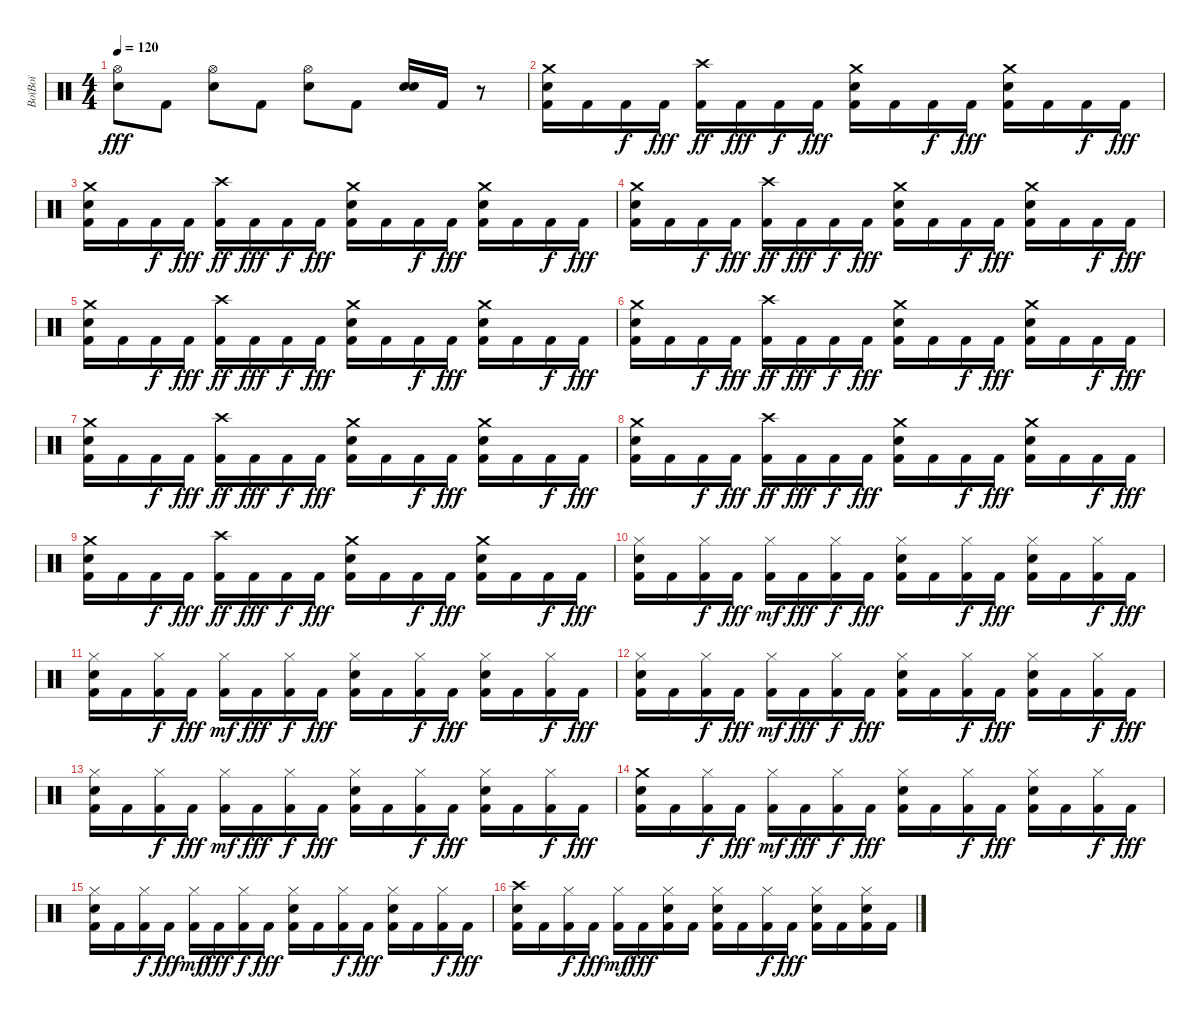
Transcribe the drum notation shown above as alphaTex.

\track ("BoïBoï" "BoïBoï") {instrument percussion}
\staff {score}
\articulation defaults
\ts (4 4)
\tempo 120
\clef neutral
\ks c
("Hi-Hat (open)" "Electric Snare (hit)").8{dy fff} "Kick (hit) 2".8 ("Hi-Hat (open)" "Electric Snare (hit)").8 "Kick (hit) 2".8 ("Hi-Hat (open)" "Electric Snare (hit)").8 "Kick (hit) 2".8 ("Electric Snare (hit)" "Snare (hit) 2").16 "Kick (hit) 2".16 r.8 |
("Crash medium (hit)" "Electric Snare (hit)" "Kick (hit) 2").16 "Kick (hit) 2".16 "Kick (hit) 2".16{dy f} "Kick (hit) 2".16{dy fff} ("Crash high (hit)" "Kick (hit) 2").16{dy ff} "Kick (hit) 2".16{dy fff} "Kick (hit) 2".16{dy f} "Kick (hit) 2".16{dy fff} ("Crash medium (hit)" "Electric Snare (hit)" "Kick (hit) 2").16 "Kick (hit) 2".16 "Kick (hit) 2".16{dy f} "Kick (hit) 2".16{dy fff} ("Crash medium (hit)" "Electric Snare (hit)" "Kick (hit) 2").16 "Kick (hit) 2".16 "Kick (hit) 2".16{dy f} "Kick (hit) 2".16{dy fff} |
("Crash medium (hit)" "Electric Snare (hit)" "Kick (hit) 2").16 "Kick (hit) 2".16 "Kick (hit) 2".16{dy f} "Kick (hit) 2".16{dy fff} ("Crash high (hit)" "Kick (hit) 2").16{dy ff} "Kick (hit) 2".16{dy fff} "Kick (hit) 2".16{dy f} "Kick (hit) 2".16{dy fff} ("Crash medium (hit)" "Electric Snare (hit)" "Kick (hit) 2").16 "Kick (hit) 2".16 "Kick (hit) 2".16{dy f} "Kick (hit) 2".16{dy fff} ("Crash medium (hit)" "Electric Snare (hit)" "Kick (hit) 2").16 "Kick (hit) 2".16 "Kick (hit) 2".16{dy f} "Kick (hit) 2".16{dy fff} |
("Crash medium (hit)" "Electric Snare (hit)" "Kick (hit) 2").16 "Kick (hit) 2".16 "Kick (hit) 2".16{dy f} "Kick (hit) 2".16{dy fff} ("Crash high (hit)" "Kick (hit) 2").16{dy ff} "Kick (hit) 2".16{dy fff} "Kick (hit) 2".16{dy f} "Kick (hit) 2".16{dy fff} ("Crash medium (hit)" "Electric Snare (hit)" "Kick (hit) 2").16 "Kick (hit) 2".16 "Kick (hit) 2".16{dy f} "Kick (hit) 2".16{dy fff} ("Crash medium (hit)" "Electric Snare (hit)" "Kick (hit) 2").16 "Kick (hit) 2".16 "Kick (hit) 2".16{dy f} "Kick (hit) 2".16{dy fff} |
("Crash medium (hit)" "Electric Snare (hit)" "Kick (hit) 2").16 "Kick (hit) 2".16 "Kick (hit) 2".16{dy f} "Kick (hit) 2".16{dy fff} ("Crash high (hit)" "Kick (hit) 2").16{dy ff} "Kick (hit) 2".16{dy fff} "Kick (hit) 2".16{dy f} "Kick (hit) 2".16{dy fff} ("Crash medium (hit)" "Electric Snare (hit)" "Kick (hit) 2").16 "Kick (hit) 2".16 "Kick (hit) 2".16{dy f} "Kick (hit) 2".16{dy fff} ("Crash medium (hit)" "Electric Snare (hit)" "Kick (hit) 2").16 "Kick (hit) 2".16 "Kick (hit) 2".16{dy f} "Kick (hit) 2".16{dy fff} |
("Crash medium (hit)" "Electric Snare (hit)" "Kick (hit) 2").16 "Kick (hit) 2".16 "Kick (hit) 2".16{dy f} "Kick (hit) 2".16{dy fff} ("Crash high (hit)" "Kick (hit) 2").16{dy ff} "Kick (hit) 2".16{dy fff} "Kick (hit) 2".16{dy f} "Kick (hit) 2".16{dy fff} ("Crash medium (hit)" "Electric Snare (hit)" "Kick (hit) 2").16 "Kick (hit) 2".16 "Kick (hit) 2".16{dy f} "Kick (hit) 2".16{dy fff} ("Crash medium (hit)" "Electric Snare (hit)" "Kick (hit) 2").16 "Kick (hit) 2".16 "Kick (hit) 2".16{dy f} "Kick (hit) 2".16{dy fff} |
("Crash medium (hit)" "Electric Snare (hit)" "Kick (hit) 2").16 "Kick (hit) 2".16 "Kick (hit) 2".16{dy f} "Kick (hit) 2".16{dy fff} ("Crash high (hit)" "Kick (hit) 2").16{dy ff} "Kick (hit) 2".16{dy fff} "Kick (hit) 2".16{dy f} "Kick (hit) 2".16{dy fff} ("Crash medium (hit)" "Electric Snare (hit)" "Kick (hit) 2").16 "Kick (hit) 2".16 "Kick (hit) 2".16{dy f} "Kick (hit) 2".16{dy fff} ("Crash medium (hit)" "Electric Snare (hit)" "Kick (hit) 2").16 "Kick (hit) 2".16 "Kick (hit) 2".16{dy f} "Kick (hit) 2".16{dy fff} |
("Crash medium (hit)" "Electric Snare (hit)" "Kick (hit) 2").16 "Kick (hit) 2".16 "Kick (hit) 2".16{dy f} "Kick (hit) 2".16{dy fff} ("Crash high (hit)" "Kick (hit) 2").16{dy ff} "Kick (hit) 2".16{dy fff} "Kick (hit) 2".16{dy f} "Kick (hit) 2".16{dy fff} ("Crash medium (hit)" "Electric Snare (hit)" "Kick (hit) 2").16 "Kick (hit) 2".16 "Kick (hit) 2".16{dy f} "Kick (hit) 2".16{dy fff} ("Crash medium (hit)" "Electric Snare (hit)" "Kick (hit) 2").16 "Kick (hit) 2".16 "Kick (hit) 2".16{dy f} "Kick (hit) 2".16{dy fff} |
("Crash medium (hit)" "Electric Snare (hit)" "Kick (hit) 2").16 "Kick (hit) 2".16 "Kick (hit) 2".16{dy f} "Kick (hit) 2".16{dy fff} ("Crash high (hit)" "Kick (hit) 2").16{dy ff} "Kick (hit) 2".16{dy fff} "Kick (hit) 2".16{dy f} "Kick (hit) 2".16{dy fff} ("Crash medium (hit)" "Electric Snare (hit)" "Kick (hit) 2").16 "Kick (hit) 2".16 "Kick (hit) 2".16{dy f} "Kick (hit) 2".16{dy fff} ("Crash medium (hit)" "Electric Snare (hit)" "Kick (hit) 2").16 "Kick (hit) 2".16 "Kick (hit) 2".16{dy f} "Kick (hit) 2".16{dy fff} |
("Hi-Hat (closed)" "Electric Snare (hit)" "Kick (hit) 2").16 "Kick (hit) 2".16 ("Hi-Hat (closed)" "Kick (hit) 2").16{dy f} "Kick (hit) 2".16{dy fff} ("Hi-Hat (closed)" "Kick (hit) 2").16{dy mf} "Kick (hit) 2".16{dy fff} ("Hi-Hat (closed)" "Kick (hit) 2").16{dy f} "Kick (hit) 2".16{dy fff} ("Hi-Hat (closed)" "Electric Snare (hit)" "Kick (hit) 2").16 "Kick (hit) 2".16 ("Hi-Hat (closed)" "Kick (hit) 2").16{dy f} "Kick (hit) 2".16{dy fff} ("Hi-Hat (closed)" "Electric Snare (hit)" "Kick (hit) 2").16 "Kick (hit) 2".16 ("Hi-Hat (closed)" "Kick (hit) 2").16{dy f} "Kick (hit) 2".16{dy fff} |
("Hi-Hat (closed)" "Electric Snare (hit)" "Kick (hit) 2").16 "Kick (hit) 2".16 ("Hi-Hat (closed)" "Kick (hit) 2").16{dy f} "Kick (hit) 2".16{dy fff} ("Hi-Hat (closed)" "Kick (hit) 2").16{dy mf} "Kick (hit) 2".16{dy fff} ("Hi-Hat (closed)" "Kick (hit) 2").16{dy f} "Kick (hit) 2".16{dy fff} ("Hi-Hat (closed)" "Electric Snare (hit)" "Kick (hit) 2").16 "Kick (hit) 2".16 ("Hi-Hat (closed)" "Kick (hit) 2").16{dy f} "Kick (hit) 2".16{dy fff} ("Hi-Hat (closed)" "Electric Snare (hit)" "Kick (hit) 2").16 "Kick (hit) 2".16 ("Hi-Hat (closed)" "Kick (hit) 2").16{dy f} "Kick (hit) 2".16{dy fff} |
("Hi-Hat (closed)" "Electric Snare (hit)" "Kick (hit) 2").16 "Kick (hit) 2".16 ("Hi-Hat (closed)" "Kick (hit) 2").16{dy f} "Kick (hit) 2".16{dy fff} ("Hi-Hat (closed)" "Kick (hit) 2").16{dy mf} "Kick (hit) 2".16{dy fff} ("Hi-Hat (closed)" "Kick (hit) 2").16{dy f} "Kick (hit) 2".16{dy fff} ("Hi-Hat (closed)" "Electric Snare (hit)" "Kick (hit) 2").16 "Kick (hit) 2".16 ("Hi-Hat (closed)" "Kick (hit) 2").16{dy f} "Kick (hit) 2".16{dy fff} ("Hi-Hat (closed)" "Electric Snare (hit)" "Kick (hit) 2").16 "Kick (hit) 2".16 ("Hi-Hat (closed)" "Kick (hit) 2").16{dy f} "Kick (hit) 2".16{dy fff} |
("Hi-Hat (closed)" "Electric Snare (hit)" "Kick (hit) 2").16 "Kick (hit) 2".16 ("Hi-Hat (closed)" "Kick (hit) 2").16{dy f} "Kick (hit) 2".16{dy fff} ("Hi-Hat (closed)" "Kick (hit) 2").16{dy mf} "Kick (hit) 2".16{dy fff} ("Hi-Hat (closed)" "Kick (hit) 2").16{dy f} "Kick (hit) 2".16{dy fff} ("Hi-Hat (closed)" "Electric Snare (hit)" "Kick (hit) 2").16 "Kick (hit) 2".16 ("Hi-Hat (closed)" "Kick (hit) 2").16{dy f} "Kick (hit) 2".16{dy fff} ("Hi-Hat (closed)" "Electric Snare (hit)" "Kick (hit) 2").16 "Kick (hit) 2".16 ("Hi-Hat (closed)" "Kick (hit) 2").16{dy f} "Kick (hit) 2".16{dy fff} |
("Crash medium (hit)" "Electric Snare (hit)" "Kick (hit) 2").16 "Kick (hit) 2".16 ("Hi-Hat (closed)" "Kick (hit) 2").16{dy f} "Kick (hit) 2".16{dy fff} ("Hi-Hat (closed)" "Kick (hit) 2").16{dy mf} "Kick (hit) 2".16{dy fff} ("Hi-Hat (closed)" "Kick (hit) 2").16{dy f} "Kick (hit) 2".16{dy fff} ("Hi-Hat (closed)" "Electric Snare (hit)" "Kick (hit) 2").16 "Kick (hit) 2".16 ("Hi-Hat (closed)" "Kick (hit) 2").16{dy f} "Kick (hit) 2".16{dy fff} ("Hi-Hat (closed)" "Electric Snare (hit)" "Kick (hit) 2").16 "Kick (hit) 2".16 ("Hi-Hat (closed)" "Kick (hit) 2").16{dy f} "Kick (hit) 2".16{dy fff} |
("Hi-Hat (closed)" "Electric Snare (hit)" "Kick (hit) 2").16 "Kick (hit) 2".16 ("Hi-Hat (closed)" "Kick (hit) 2").16{dy f} "Kick (hit) 2".16{dy fff} ("Hi-Hat (closed)" "Kick (hit) 2").16{dy mf} "Kick (hit) 2".16{dy fff} ("Hi-Hat (closed)" "Kick (hit) 2").16{dy f} "Kick (hit) 2".16{dy fff} ("Hi-Hat (closed)" "Electric Snare (hit)" "Kick (hit) 2").16 "Kick (hit) 2".16 ("Hi-Hat (closed)" "Kick (hit) 2").16{dy f} "Kick (hit) 2".16{dy fff} ("Hi-Hat (closed)" "Electric Snare (hit)" "Kick (hit) 2").16 "Kick (hit) 2".16 ("Hi-Hat (closed)" "Kick (hit) 2").16{dy f} "Kick (hit) 2".16{dy fff} |
("Crash high (hit)" "Electric Snare (hit)" "Kick (hit) 2").16 "Kick (hit) 2".16 ("Hi-Hat (closed)" "Kick (hit) 2").16{dy f} "Kick (hit) 2".16{dy fff} ("Hi-Hat (closed)" "Kick (hit) 2").16{dy mf} "Kick (hit) 2".16{dy fff} ("Hi-Hat (closed)" "Electric Snare (hit)" "Kick (hit) 2").16 "Kick (hit) 2".16 ("Hi-Hat (closed)" "Electric Snare (hit)" "Kick (hit) 2").16 "Kick (hit) 2".16 ("Hi-Hat (closed)" "Kick (hit) 2").16{dy f} "Kick (hit) 2".16{dy fff} ("Hi-Hat (closed)" "Electric Snare (hit)" "Kick (hit) 2").16 "Kick (hit) 2".16 ("Hi-Hat (closed)" "Electric Snare (hit)" "Kick (hit) 2").16 "Kick (hit) 2".16
